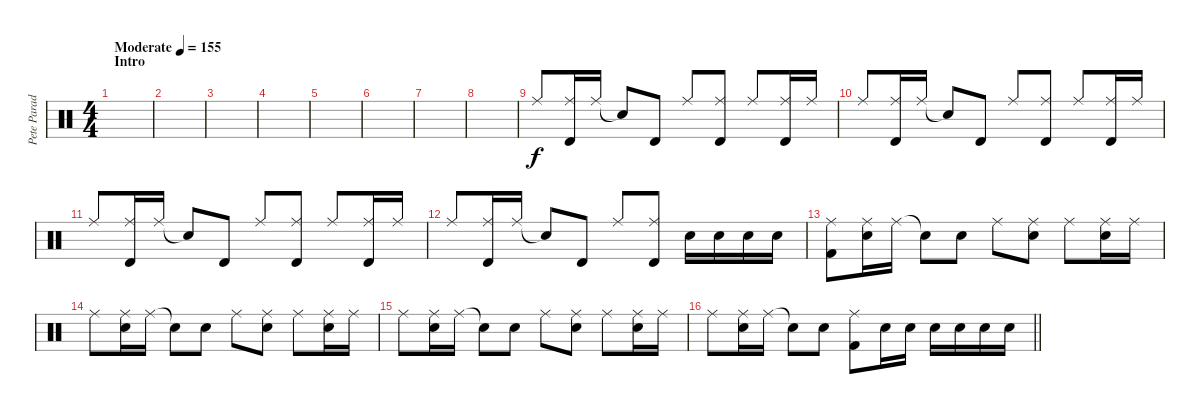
\track ("Pete Parada - Drums" "Pete Parad") {instrument percussion}
\staff {score}
\articulation defaults
\ts (4 4)
\section ("" "Intro")
\tempo (155 "Moderate")
\clef neutral
\ks c
|
|
|
|
|
|
|
|
"Ride (middle)".8 ("Ride (middle)" "Timbale high (hit)").16 "Ride (middle)".16 "Snare (hit)"{t}.8 "Timbale high (hit)".8 "Ride (middle)".8 ("Ride (middle)" "Timbale high (hit)").8 "Ride (middle)".8 ("Ride (middle)" "Timbale high (hit)").16 "Ride (middle)".16 |
"Ride (middle)".8 ("Ride (middle)" "Timbale high (hit)").16 "Ride (middle)".16 "Snare (hit)"{t}.8 "Timbale high (hit)".8 "Ride (middle)".8 ("Ride (middle)" "Timbale high (hit)").8 "Ride (middle)".8 ("Ride (middle)" "Timbale high (hit)").16 "Ride (middle)".16 |
"Ride (middle)".8 ("Ride (middle)" "Timbale high (hit)").16 "Ride (middle)".16 "Snare (hit)"{t}.8 "Timbale high (hit)".8 "Ride (middle)".8 ("Ride (middle)" "Timbale high (hit)").8 "Ride (middle)".8 ("Ride (middle)" "Timbale high (hit)").16 "Ride (middle)".16 |
"Ride (middle)".8 ("Ride (middle)" "Timbale high (hit)").16 "Ride (middle)".16 "Snare (hit)"{t}.8 "Timbale high (hit)".8 "Ride (middle)".8 ("Ride (middle)" "Timbale high (hit)").8 "Electric Snare (hit)".16 "Electric Snare (hit)".16 "Electric Snare (hit)".16 "Electric Snare (hit)".16 |
("Ride (middle)" "Kick (hit) 2").8 ("Ride (middle)" "Electric Snare (hit)").16 "Ride (middle)".16 "Snare (hit)"{t}.8 "Electric Snare (hit)".8 "Ride (middle)".8 ("Ride (middle)" "Electric Snare (hit)").8 "Ride (middle)".8 ("Ride (middle)" "Electric Snare (hit)").16 "Ride (middle)".16 |
"Ride (middle)".8 ("Ride (middle)" "Electric Snare (hit)").16 "Ride (middle)".16 "Snare (hit)"{t}.8 "Electric Snare (hit)".8 "Ride (middle)".8 ("Ride (middle)" "Electric Snare (hit)").8 "Ride (middle)".8 ("Ride (middle)" "Electric Snare (hit)").16 "Ride (middle)".16 |
"Ride (middle)".8 ("Ride (middle)" "Electric Snare (hit)").16 "Ride (middle)".16 "Snare (hit)"{t}.8 "Electric Snare (hit)".8 "Ride (middle)".8 ("Ride (middle)" "Electric Snare (hit)").8 "Ride (middle)".8 ("Ride (middle)" "Electric Snare (hit)").16 "Ride (middle)".16 |
\barLineRight lightlight "Ride (middle)".8
("Ride (middle)" "Electric Snare (hit)").16 "Ride (middle)".16 "Snare (hit)"{t}.8 "Electric Snare (hit)".8 ("Ride (middle)" "Kick (hit) 2").8 "Electric Snare (hit)".16 "Electric Snare (hit)".16 "Electric Snare (hit)".16 "Electric Snare (hit)".16 "Electric Snare (hit)".16 "Electric Snare (hit)".16
